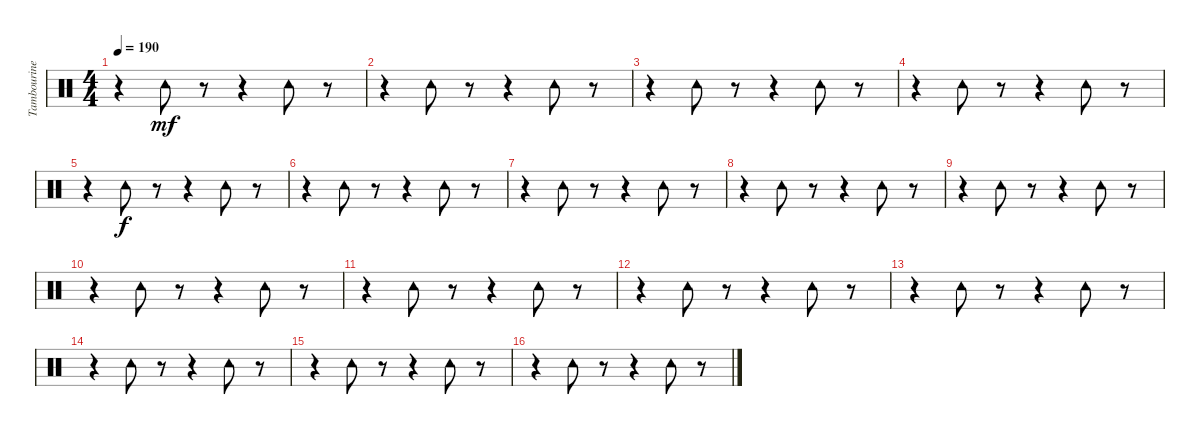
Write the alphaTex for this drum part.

\track ("Tambourine" "Tambourine") {instrument percussion}
\staff {score}
\articulation defaults
\ts (4 4)
\tempo 190
\clef neutral
\ks c
r.4{dy mp} "Tambourine (hit)".8{dy mf} r.8 r.4 "Tambourine (hit)".8 r.8 |
r.4 "Tambourine (hit)".8 r.8 r.4 "Tambourine (hit)".8 r.8 |
r.4 "Tambourine (hit)".8 r.8 r.4 "Tambourine (hit)".8 r.8 |
r.4 "Tambourine (hit)".8 r.8 r.4 "Tambourine (hit)".8 r.8 |
r.4 "Tambourine (hit)".8{dy f} r.8 r.4 "Tambourine (hit)".8 r.8 |
r.4 "Tambourine (hit)".8 r.8 r.4 "Tambourine (hit)".8 r.8 |
r.4 "Tambourine (hit)".8 r.8 r.4 "Tambourine (hit)".8 r.8 |
r.4 "Tambourine (hit)".8 r.8 r.4 "Tambourine (hit)".8 r.8 |
r.4 "Tambourine (hit)".8 r.8 r.4 "Tambourine (hit)".8 r.8 |
r.4 "Tambourine (hit)".8 r.8 r.4 "Tambourine (hit)".8 r.8 |
r.4 "Tambourine (hit)".8 r.8 r.4 "Tambourine (hit)".8 r.8 |
r.4 "Tambourine (hit)".8 r.8 r.4 "Tambourine (hit)".8 r.8 |
r.4 "Tambourine (hit)".8 r.8 r.4 "Tambourine (hit)".8 r.8 |
r.4 "Tambourine (hit)".8 r.8 r.4 "Tambourine (hit)".8 r.8 |
r.4 "Tambourine (hit)".8 r.8 r.4 "Tambourine (hit)".8 r.8 |
r.4 "Tambourine (hit)".8 r.8 r.4 "Tambourine (hit)".8 r.8
